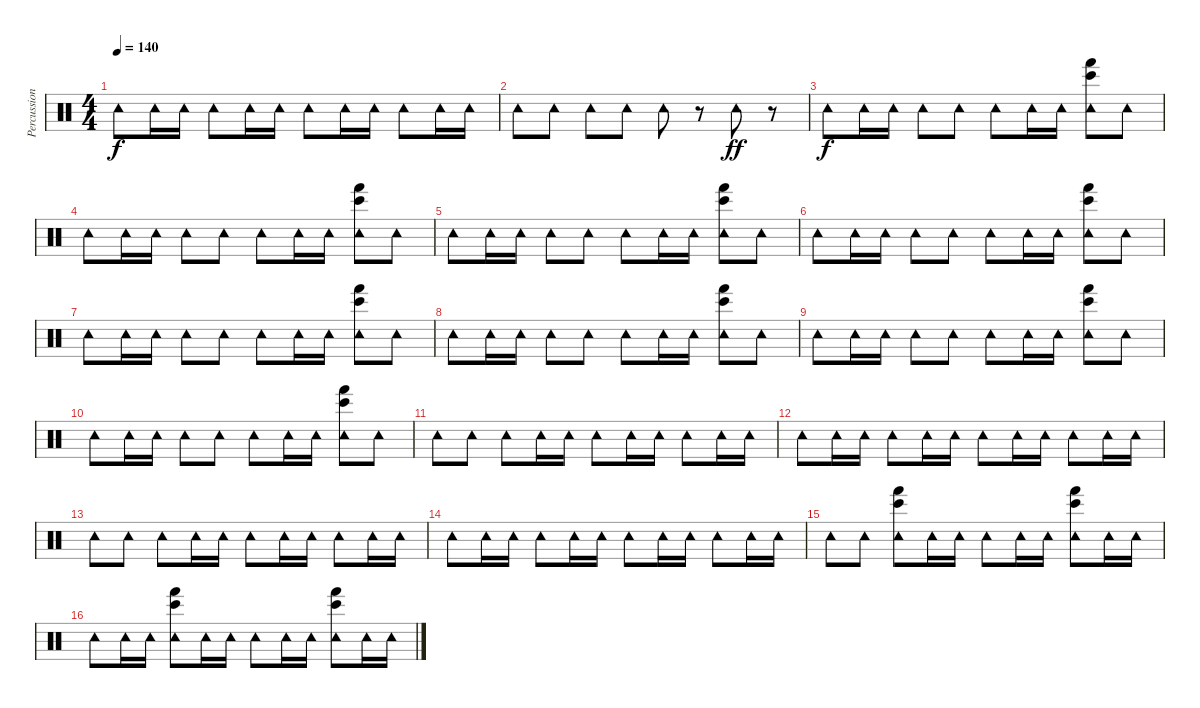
\track ("Percussion" "Percussion") {instrument percussion}
\staff {score}
\articulation defaults
\ts (4 4)
\tempo 140
\clef neutral
\ks c "Tambourine (hit)".8{dy f} "Tambourine (hit)".16 "Tambourine (hit)".16 "Tambourine (hit)".8 "Tambourine (hit)".16 "Tambourine (hit)".16 "Tambourine (hit)".8 "Tambourine (hit)".16 "Tambourine (hit)".16 "Tambourine (hit)".8 "Tambourine (hit)".16 "Tambourine (hit)".16
|
"Tambourine (hit)".8 "Tambourine (hit)".8 "Tambourine (hit)".8 "Tambourine (hit)".8 "Tambourine (hit)".8 r.8 "Tambourine (hit)".8{dy ff} r.8 |
"Tambourine (hit)".8{dy f} "Tambourine (hit)".16 "Tambourine (hit)".16 "Tambourine (hit)".8 "Tambourine (hit)".8 "Tambourine (hit)".8 "Tambourine (hit)".16 "Tambourine (hit)".16 ("Tambourine (hit)" "Hand (hit)" "Bongo High (hit)").8 "Tambourine (hit)".8 |
"Tambourine (hit)".8 "Tambourine (hit)".16 "Tambourine (hit)".16 "Tambourine (hit)".8 "Tambourine (hit)".8 "Tambourine (hit)".8 "Tambourine (hit)".16 "Tambourine (hit)".16 ("Tambourine (hit)" "Hand (hit)" "Bongo High (hit)").8 "Tambourine (hit)".8 |
"Tambourine (hit)".8 "Tambourine (hit)".16 "Tambourine (hit)".16 "Tambourine (hit)".8 "Tambourine (hit)".8 "Tambourine (hit)".8 "Tambourine (hit)".16 "Tambourine (hit)".16 ("Tambourine (hit)" "Hand (hit)" "Bongo High (hit)").8 "Tambourine (hit)".8 |
"Tambourine (hit)".8 "Tambourine (hit)".16 "Tambourine (hit)".16 "Tambourine (hit)".8 "Tambourine (hit)".8 "Tambourine (hit)".8 "Tambourine (hit)".16 "Tambourine (hit)".16 ("Tambourine (hit)" "Hand (hit)" "Bongo High (hit)").8 "Tambourine (hit)".8 |
"Tambourine (hit)".8 "Tambourine (hit)".16 "Tambourine (hit)".16 "Tambourine (hit)".8 "Tambourine (hit)".8 "Tambourine (hit)".8 "Tambourine (hit)".16 "Tambourine (hit)".16 ("Tambourine (hit)" "Hand (hit)" "Bongo High (hit)").8 "Tambourine (hit)".8 |
"Tambourine (hit)".8 "Tambourine (hit)".16 "Tambourine (hit)".16 "Tambourine (hit)".8 "Tambourine (hit)".8 "Tambourine (hit)".8 "Tambourine (hit)".16 "Tambourine (hit)".16 ("Tambourine (hit)" "Hand (hit)" "Bongo High (hit)").8 "Tambourine (hit)".8 |
"Tambourine (hit)".8 "Tambourine (hit)".16 "Tambourine (hit)".16 "Tambourine (hit)".8 "Tambourine (hit)".8 "Tambourine (hit)".8 "Tambourine (hit)".16 "Tambourine (hit)".16 ("Tambourine (hit)" "Hand (hit)" "Bongo High (hit)").8 "Tambourine (hit)".8 |
"Tambourine (hit)".8 "Tambourine (hit)".16 "Tambourine (hit)".16 "Tambourine (hit)".8 "Tambourine (hit)".8 "Tambourine (hit)".8 "Tambourine (hit)".16 "Tambourine (hit)".16 ("Tambourine (hit)" "Hand (hit)" "Bongo High (hit)").8 "Tambourine (hit)".8 |
"Tambourine (hit)".8 "Tambourine (hit)".8 "Tambourine (hit)".8 "Tambourine (hit)".16 "Tambourine (hit)".16 "Tambourine (hit)".8 "Tambourine (hit)".16 "Tambourine (hit)".16 "Tambourine (hit)".8 "Tambourine (hit)".16 "Tambourine (hit)".16 |
"Tambourine (hit)".8 "Tambourine (hit)".16 "Tambourine (hit)".16 "Tambourine (hit)".8 "Tambourine (hit)".16 "Tambourine (hit)".16 "Tambourine (hit)".8 "Tambourine (hit)".16 "Tambourine (hit)".16 "Tambourine (hit)".8 "Tambourine (hit)".16 "Tambourine (hit)".16 |
"Tambourine (hit)".8 "Tambourine (hit)".8 "Tambourine (hit)".8 "Tambourine (hit)".16 "Tambourine (hit)".16 "Tambourine (hit)".8 "Tambourine (hit)".16 "Tambourine (hit)".16 "Tambourine (hit)".8 "Tambourine (hit)".16 "Tambourine (hit)".16 |
"Tambourine (hit)".8 "Tambourine (hit)".16 "Tambourine (hit)".16 "Tambourine (hit)".8 "Tambourine (hit)".16 "Tambourine (hit)".16 "Tambourine (hit)".8 "Tambourine (hit)".16 "Tambourine (hit)".16 "Tambourine (hit)".8 "Tambourine (hit)".16 "Tambourine (hit)".16 |
"Tambourine (hit)".8 "Tambourine (hit)".8 ("Tambourine (hit)" "Hand (hit)" "Bongo High (hit)").8 "Tambourine (hit)".16 "Tambourine (hit)".16 "Tambourine (hit)".8 "Tambourine (hit)".16 "Tambourine (hit)".16 ("Tambourine (hit)" "Hand (hit)" "Bongo High (hit)").8 "Tambourine (hit)".16 "Tambourine (hit)".16 |
"Tambourine (hit)".8 "Tambourine (hit)".16 "Tambourine (hit)".16 ("Tambourine (hit)" "Hand (hit)" "Bongo High (hit)").8 "Tambourine (hit)".16 "Tambourine (hit)".16 "Tambourine (hit)".8 "Tambourine (hit)".16 "Tambourine (hit)".16 ("Tambourine (hit)" "Hand (hit)" "Bongo High (hit)").8 "Tambourine (hit)".16 "Tambourine (hit)".16
